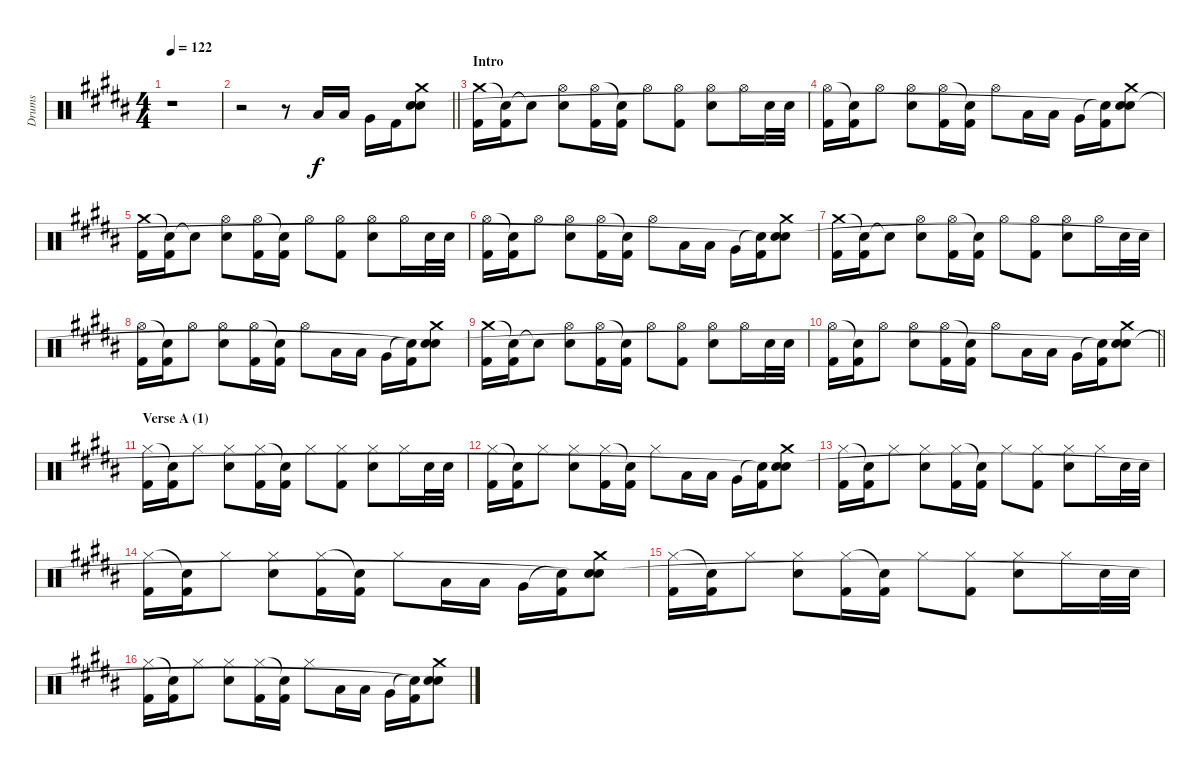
\track ("Drums" "Drums") {instrument percussion}
\staff {score}
\articulation defaults
\ts (4 4)
\tempo 122
\clef neutral
\ks g#minor
r.1{dy f} |
\barLineRight lightlight
r.2 r.8 "Low Tom (hit)".16 "Low Tom (hit)".16 "Very Low Tom (hit)".16 "Kick (hit) 2".16 ("Crash medium (hit)" "Electric Snare (hit)" "Snare (hit)").8 |
\section ("" "Intro")
("Crash medium (hit)" "Kick (hit) 2").16 ("Snare (hit)"{t} "Kick (hit) 2").16 "Snare (hit)"{t}.8 ("Hi-Hat (open)" "Electric Snare (hit)").8 ("Hi-Hat (open)" "Kick (hit) 2").16 ("Snare (hit)"{t} "Kick (hit) 2").16 "Hi-Hat (open)".8 ("Hi-Hat (open)" "Kick (hit) 2").8 ("Hi-Hat (open)" "Electric Snare (hit)").8 "Hi-Hat (open)".16 "Electric Snare (hit)".32 "Electric Snare (hit)".32 |
("Hi-Hat (open)" "Kick (hit) 2").16 ("Snare (hit)"{t} "Kick (hit) 2").16 "Hi-Hat (open)".8 ("Hi-Hat (open)" "Electric Snare (hit)").8 ("Hi-Hat (open)" "Kick (hit) 2").16 ("Snare (hit)"{t} "Kick (hit) 2").16 "Hi-Hat (open)".8 "Low Tom (hit)".16 "Low Tom (hit)".16 "Very Low Tom (hit)".16 ("Snare (hit)"{t} "Kick (hit) 2").16 ("Crash medium (hit)" "Electric Snare (hit)" "Snare (hit)"{t}).8 |
("Crash medium (hit)" "Kick (hit) 2").16 ("Snare (hit)"{t} "Kick (hit) 2").16 "Snare (hit)"{t}.8 ("Hi-Hat (open)" "Electric Snare (hit)").8 ("Hi-Hat (open)" "Kick (hit) 2").16 ("Snare (hit)"{t} "Kick (hit) 2").16 "Hi-Hat (open)".8 ("Hi-Hat (open)" "Kick (hit) 2").8 ("Hi-Hat (open)" "Electric Snare (hit)").8 "Hi-Hat (open)".16 "Electric Snare (hit)".32 "Electric Snare (hit)".32 |
("Hi-Hat (open)" "Kick (hit) 2").16 ("Snare (hit)"{t} "Kick (hit) 2").16 "Hi-Hat (open)".8 ("Hi-Hat (open)" "Electric Snare (hit)").8 ("Hi-Hat (open)" "Kick (hit) 2").16 ("Snare (hit)"{t} "Kick (hit) 2").16 "Hi-Hat (open)".8 "Low Tom (hit)".16 "Low Tom (hit)".16 "Very Low Tom (hit)".16 ("Snare (hit)"{t} "Kick (hit) 2").16 ("Crash medium (hit)" "Electric Snare (hit)" "Snare (hit)"{t}).8 |
("Crash medium (hit)" "Kick (hit) 2").16 ("Snare (hit)"{t} "Kick (hit) 2").16 "Snare (hit)"{t}.8 ("Hi-Hat (open)" "Electric Snare (hit)").8 ("Hi-Hat (open)" "Kick (hit) 2").16 ("Snare (hit)"{t} "Kick (hit) 2").16 "Hi-Hat (open)".8 ("Hi-Hat (open)" "Kick (hit) 2").8 ("Hi-Hat (open)" "Electric Snare (hit)").8 "Hi-Hat (open)".16 "Electric Snare (hit)".32 "Electric Snare (hit)".32 |
("Hi-Hat (open)" "Kick (hit) 2").16 ("Snare (hit)"{t} "Kick (hit) 2").16 "Hi-Hat (open)".8 ("Hi-Hat (open)" "Electric Snare (hit)").8 ("Hi-Hat (open)" "Kick (hit) 2").16 ("Snare (hit)"{t} "Kick (hit) 2").16 "Hi-Hat (open)".8 "Low Tom (hit)".16 "Low Tom (hit)".16 "Very Low Tom (hit)".16 ("Snare (hit)"{t} "Kick (hit) 2").16 ("Crash medium (hit)" "Electric Snare (hit)" "Snare (hit)"{t}).8 |
("Crash medium (hit)" "Kick (hit) 2").16 ("Snare (hit)"{t} "Kick (hit) 2").16 "Snare (hit)"{t}.8 ("Hi-Hat (open)" "Electric Snare (hit)").8 ("Hi-Hat (open)" "Kick (hit) 2").16 ("Snare (hit)"{t} "Kick (hit) 2").16 "Hi-Hat (open)".8 ("Hi-Hat (open)" "Kick (hit) 2").8 ("Hi-Hat (open)" "Electric Snare (hit)").8 "Hi-Hat (open)".16 "Electric Snare (hit)".32 "Electric Snare (hit)".32 |
\barLineRight lightlight
("Hi-Hat (open)" "Kick (hit) 2").16 ("Snare (hit)"{t} "Kick (hit) 2").16 "Hi-Hat (open)".8 ("Hi-Hat (open)" "Electric Snare (hit)").8 ("Hi-Hat (open)" "Kick (hit) 2").16 ("Snare (hit)"{t} "Kick (hit) 2").16 "Hi-Hat (open)".8 "Low Tom (hit)".16 "Low Tom (hit)".16 "Very Low Tom (hit)".16 ("Snare (hit)"{t} "Kick (hit) 2").16 ("Crash medium (hit)" "Electric Snare (hit)" "Snare (hit)"{t}).8 |
\section ("" "Verse A (1)")
("Hi-Hat (closed)" "Kick (hit) 2").16 ("Snare (hit)"{t} "Kick (hit) 2").16 "Hi-Hat (closed)".8 ("Hi-Hat (closed)" "Electric Snare (hit)").8 ("Hi-Hat (closed)" "Kick (hit) 2").16 ("Snare (hit)"{t} "Kick (hit) 2").16 "Hi-Hat (closed)".8 ("Hi-Hat (closed)" "Kick (hit) 2").8 ("Hi-Hat (closed)" "Electric Snare (hit)").8 "Hi-Hat (closed)".16 "Electric Snare (hit)".32 "Electric Snare (hit)".32 |
("Hi-Hat (closed)" "Kick (hit) 2").16 ("Snare (hit)"{t} "Kick (hit) 2").16 "Hi-Hat (closed)".8 ("Hi-Hat (closed)" "Electric Snare (hit)").8 ("Hi-Hat (closed)" "Kick (hit) 2").16 ("Snare (hit)"{t} "Kick (hit) 2").16 "Hi-Hat (closed)".8 "Low Tom (hit)".16 "Low Tom (hit)".16 "Very Low Tom (hit)".16 ("Snare (hit)"{t} "Kick (hit) 2").16 ("Crash medium (hit)" "Electric Snare (hit)" "Snare (hit)"{t}).8 |
("Hi-Hat (closed)" "Kick (hit) 2").16 ("Snare (hit)"{t} "Kick (hit) 2").16 "Hi-Hat (closed)".8 ("Hi-Hat (closed)" "Electric Snare (hit)").8 ("Hi-Hat (closed)" "Kick (hit) 2").16 ("Snare (hit)"{t} "Kick (hit) 2").16 "Hi-Hat (closed)".8 ("Hi-Hat (closed)" "Kick (hit) 2").8 ("Hi-Hat (closed)" "Electric Snare (hit)").8 "Hi-Hat (closed)".16 "Electric Snare (hit)".32 "Electric Snare (hit)".32 |
("Hi-Hat (closed)" "Kick (hit) 2").16 ("Snare (hit)"{t} "Kick (hit) 2").16 "Hi-Hat (closed)".8 ("Hi-Hat (closed)" "Electric Snare (hit)").8 ("Hi-Hat (closed)" "Kick (hit) 2").16 ("Snare (hit)"{t} "Kick (hit) 2").16 "Hi-Hat (closed)".8 "Low Tom (hit)".16 "Low Tom (hit)".16 "Very Low Tom (hit)".16 ("Snare (hit)"{t} "Kick (hit) 2").16 ("Crash medium (hit)" "Electric Snare (hit)" "Snare (hit)"{t}).8 |
("Hi-Hat (closed)" "Kick (hit) 2").16 ("Snare (hit)"{t} "Kick (hit) 2").16 "Hi-Hat (closed)".8 ("Hi-Hat (closed)" "Electric Snare (hit)").8 ("Hi-Hat (closed)" "Kick (hit) 2").16 ("Snare (hit)"{t} "Kick (hit) 2").16 "Hi-Hat (closed)".8 ("Hi-Hat (closed)" "Kick (hit) 2").8 ("Hi-Hat (closed)" "Electric Snare (hit)").8 "Hi-Hat (closed)".16 "Electric Snare (hit)".32 "Electric Snare (hit)".32 |
("Hi-Hat (closed)" "Kick (hit) 2").16 ("Snare (hit)"{t} "Kick (hit) 2").16 "Hi-Hat (closed)".8 ("Hi-Hat (closed)" "Electric Snare (hit)").8 ("Hi-Hat (closed)" "Kick (hit) 2").16 ("Snare (hit)"{t} "Kick (hit) 2").16 "Hi-Hat (closed)".8 "Low Tom (hit)".16 "Low Tom (hit)".16 "Very Low Tom (hit)".16 ("Snare (hit)"{t} "Kick (hit) 2").16 ("Crash medium (hit)" "Electric Snare (hit)" "Snare (hit)"{t}).8
